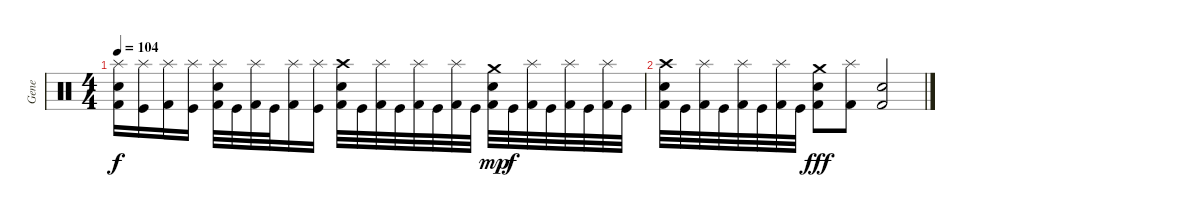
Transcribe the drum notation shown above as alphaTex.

\track ("Gene" "Gene") {instrument percussion}
\staff {score}
\articulation defaults
\ts (4 4)
\tempo 104
\clef neutral
\ks c
("Splash (hit)" "Snare (hit) 2" "Kick (hit) 2").16{dy f} ("Splash (hit)" "Kick (hit)").16 ("Splash (hit)" "Kick (hit) 2").16 ("Splash (hit)" "Kick (hit)").16 ("Splash (hit)" "Snare (hit) 2" "Kick (hit) 2").32 "Kick (hit)".32 ("Splash (hit)" "Kick (hit) 2").32 "Kick (hit)".32 ("Splash (hit)" "Kick (hit) 2").16 ("Splash (hit)" "Kick (hit)").16 ("Crash high (hit)" "Snare (hit) 2" "Kick (hit) 2").32 "Kick (hit)".32 ("Splash (hit)" "Kick (hit) 2").32 "Kick (hit)".32 ("Splash (hit)" "Kick (hit) 2").32 "Kick (hit)".32 ("Splash (hit)" "Kick (hit) 2").32 "Kick (hit)".32 ("Crash medium (hit)" "Snare (hit) 2" "Kick (hit) 2").32{dy mp} "Kick (hit)".32{dy f} ("Splash (hit)" "Kick (hit) 2").32 "Kick (hit)".32 ("Splash (hit)" "Kick (hit) 2").32 "Kick (hit)".32 ("Splash (hit)" "Kick (hit) 2").32 "Kick (hit)".32 |
("Crash high (hit)" "Snare (hit) 2" "Kick (hit) 2").32 "Kick (hit)".32 ("Splash (hit)" "Kick (hit) 2").32 "Kick (hit)".32 ("Splash (hit)" "Kick (hit) 2").32 "Kick (hit)".32 ("Splash (hit)" "Kick (hit) 2").32 "Kick (hit)".32 ("Crash medium (hit)" "Snare (hit) 2" "Kick (hit) 2").8{dy fff} ("Splash (hit)" "Kick (hit) 2").8 ("Snare (hit) 2" "Kick (hit) 2").2
